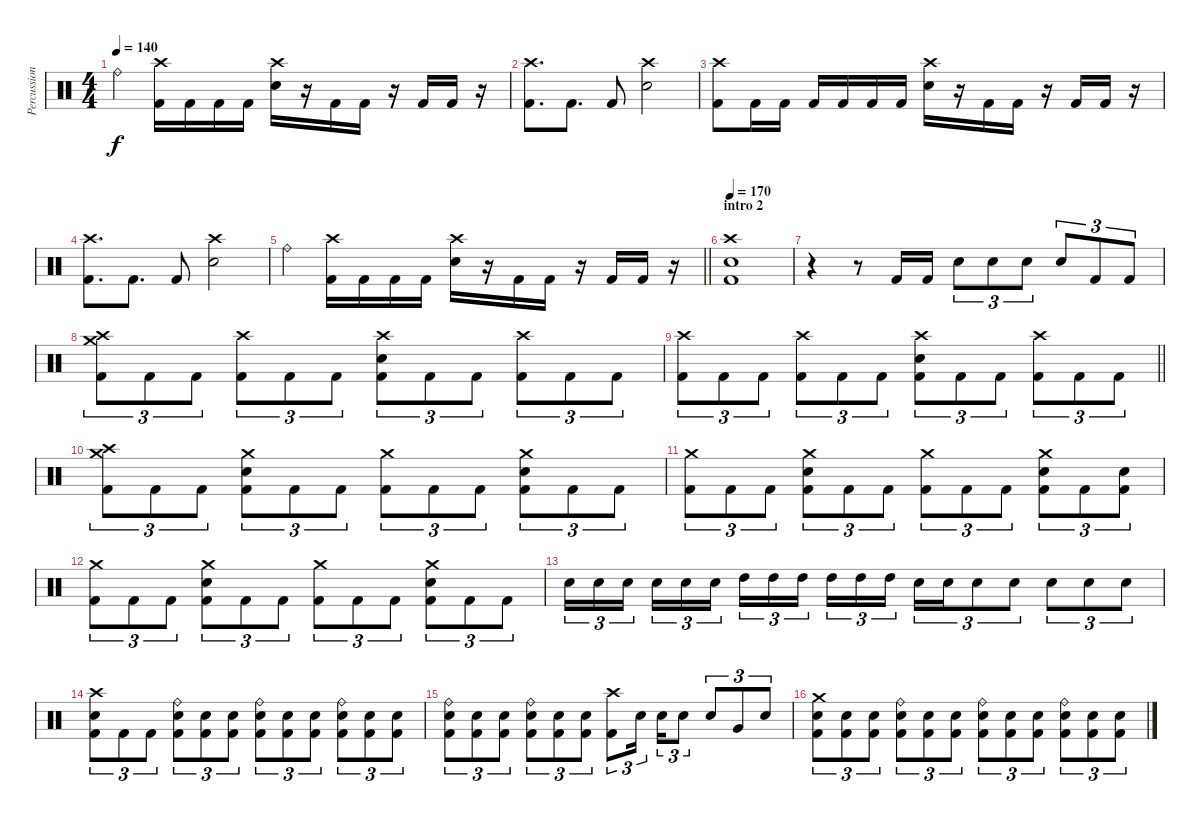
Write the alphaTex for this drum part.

\track ("Percussion" "Percussion") {instrument percussion}
\staff {score}
\articulation defaults
\ts (4 4)
\tempo 140
\clef neutral
\ks c "Ride (bell)".4{dy f}
("Crash high (hit)" "Kick (hit) 2").16 "Kick (hit) 2".16 "Kick (hit) 2".16 "Kick (hit) 2".16 ("Crash high (hit)" "Electric Snare (hit)").16 r.16 "Kick (hit) 2".16 "Kick (hit) 2".16 r.16 "Kick (hit) 2".16 "Kick (hit) 2".16 r.16 |
("Crash high (hit)" "Kick (hit) 2").8{d} "Kick (hit) 2".8{d} "Kick (hit) 2".8 ("Crash high (hit)" "Electric Snare (hit)").2 |
("Crash high (hit)" "Kick (hit) 2").8 "Kick (hit) 2".16 "Kick (hit) 2".16 "Kick (hit) 2".16 "Kick (hit) 2".16 "Kick (hit) 2".16 "Kick (hit) 2".16 ("Crash high (hit)" "Electric Snare (hit)").16 r.16 "Kick (hit) 2".16 "Kick (hit) 2".16 r.16 "Kick (hit) 2".16 "Kick (hit) 2".16 r.16 |
("Crash high (hit)" "Kick (hit) 2").8{d} "Kick (hit) 2".8{d} "Kick (hit) 2".8 ("Crash high (hit)" "Electric Snare (hit)").2 |
\barLineRight lightlight "Ride (bell)".4
("Crash high (hit)" "Kick (hit) 2").16 "Kick (hit) 2".16 "Kick (hit) 2".16 "Kick (hit) 2".16 ("Crash high (hit)" "Electric Snare (hit)").16 r.16 "Kick (hit) 2".16 "Kick (hit) 2".16 r.16 "Kick (hit) 2".16 "Kick (hit) 2".16 r.16 |
\section ("" "intro 2")
\tempo 170
("Crash high (hit)" "Electric Snare (hit)" "Kick (hit) 2").1 |
r.4 r.8 "Kick (hit) 2".16 "Kick (hit) 2".16 "Electric Snare (hit)".8{tu (3 2)} "Electric Snare (hit)".8{tu (3 2)} "Electric Snare (hit)".8{tu (3 2)} "Electric Snare (hit)".8{tu (3 2)} "Kick (hit) 2".8{tu (3 2)} "Kick (hit) 2".8{tu (3 2)} |
("Crash medium (hit)" "Crash high (hit)" "Kick (hit) 2").8{tu (3 2)} "Kick (hit) 2".8{tu (3 2)} "Kick (hit) 2".8{tu (3 2)} ("Crash high (hit)" "Kick (hit) 2").8{tu (3 2)} "Kick (hit) 2".8{tu (3 2)} "Kick (hit) 2".8{tu (3 2)} ("Crash high (hit)" "Electric Snare (hit)" "Kick (hit) 2").8{tu (3 2)} "Kick (hit) 2".8{tu (3 2)} "Kick (hit) 2".8{tu (3 2)} ("Crash high (hit)" "Kick (hit) 2").8{tu (3 2)} "Kick (hit) 2".8{tu (3 2)} "Kick (hit) 2".8{tu (3 2)} |
\barLineRight lightlight
("Crash high (hit)" "Kick (hit) 2").8{tu (3 2)} "Kick (hit) 2".8{tu (3 2)} "Kick (hit) 2".8{tu (3 2)} ("Crash high (hit)" "Kick (hit) 2").8{tu (3 2)} "Kick (hit) 2".8{tu (3 2)} "Kick (hit) 2".8{tu (3 2)} ("Crash high (hit)" "Electric Snare (hit)" "Kick (hit) 2").8{tu (3 2)} "Kick (hit) 2".8{tu (3 2)} "Kick (hit) 2".8{tu (3 2)} ("Crash high (hit)" "Kick (hit) 2").8{tu (3 2)} "Kick (hit) 2".8{tu (3 2)} "Kick (hit) 2".8{tu (3 2)} |
("Crash high (hit)" "Crash medium (hit)" "Kick (hit) 2").8{tu (3 2)} "Kick (hit) 2".8{tu (3 2)} "Kick (hit) 2".8{tu (3 2)} ("Crash medium (hit)" "Electric Snare (hit)" "Kick (hit) 2").8{tu (3 2)} "Kick (hit) 2".8{tu (3 2)} "Kick (hit) 2".8{tu (3 2)} ("Crash medium (hit)" "Kick (hit) 2").8{tu (3 2)} "Kick (hit) 2".8{tu (3 2)} "Kick (hit) 2".8{tu (3 2)} ("Crash medium (hit)" "Electric Snare (hit)" "Kick (hit) 2").8{tu (3 2)} "Kick (hit) 2".8{tu (3 2)} "Kick (hit) 2".8{tu (3 2)} |
("Crash medium (hit)" "Kick (hit) 2").8{tu (3 2)} "Kick (hit) 2".8{tu (3 2)} "Kick (hit) 2".8{tu (3 2)} ("Crash medium (hit)" "Electric Snare (hit)" "Kick (hit) 2").8{tu (3 2)} "Kick (hit) 2".8{tu (3 2)} "Kick (hit) 2".8{tu (3 2)} ("Crash medium (hit)" "Kick (hit) 2").8{tu (3 2)} "Kick (hit) 2".8{tu (3 2)} "Kick (hit) 2".8{tu (3 2)} ("Crash medium (hit)" "Electric Snare (hit)" "Kick (hit) 2").8{tu (3 2)} "Kick (hit) 2".8{tu (3 2)} ("Electric Snare (hit)" "Kick (hit) 2").8{tu (3 2)} |
("Crash medium (hit)" "Kick (hit) 2").8{tu (3 2)} "Kick (hit) 2".8{tu (3 2)} "Kick (hit) 2".8{tu (3 2)} ("Crash medium (hit)" "Electric Snare (hit)" "Kick (hit) 2").8{tu (3 2)} "Kick (hit) 2".8{tu (3 2)} "Kick (hit) 2".8{tu (3 2)} ("Crash medium (hit)" "Kick (hit) 2").8{tu (3 2)} "Kick (hit) 2".8{tu (3 2)} "Kick (hit) 2".8{tu (3 2)} ("Crash medium (hit)" "Electric Snare (hit)" "Kick (hit) 2").8{tu (3 2)} "Kick (hit) 2".8{tu (3 2)} "Kick (hit) 2".8{tu (3 2)} |
"Electric Snare (hit)".16{tu (3 2)} "Electric Snare (hit)".16{tu (3 2)} "Electric Snare (hit)".16{tu (3 2) beam splitsecondary} "Electric Snare (hit)".16{tu (3 2)} "Electric Snare (hit)".16{tu (3 2)} "Electric Snare (hit)".16{tu (3 2)} "High Tom (hit)".16{tu (3 2)} "High Tom (hit)".16{tu (3 2)} "High Tom (hit)".16{tu (3 2) beam splitsecondary} "High Tom (hit)".16{tu (3 2)} "High Tom (hit)".16{tu (3 2)} "High Tom (hit)".16{tu (3 2)} "Electric Snare (hit)".16{tu (3 2)} "Electric Snare (hit)".16{tu (3 2)} "Electric Snare (hit)".8{tu (3 2)} "Electric Snare (hit)".8{tu (3 2)} "Electric Snare (hit)".8{tu (3 2)} "Electric Snare (hit)".8{tu (3 2)} "Electric Snare (hit)".8{tu (3 2)} |
("Crash high (hit)" "Electric Snare (hit)" "Kick (hit) 2").8{tu (3 2)} "Kick (hit) 2".8{tu (3 2)} "Kick (hit) 2".8{tu (3 2)} ("Ride (bell)" "Electric Snare (hit)" "Kick (hit) 2").8{tu (3 2)} ("Electric Snare (hit)" "Kick (hit) 2").8{tu (3 2)} ("Electric Snare (hit)" "Kick (hit) 2").8{tu (3 2)} ("Ride (bell)" "Electric Snare (hit)" "Kick (hit) 2").8{tu (3 2)} ("Electric Snare (hit)" "Kick (hit) 2").8{tu (3 2)} ("Electric Snare (hit)" "Kick (hit) 2").8{tu (3 2)} ("Ride (bell)" "Electric Snare (hit)" "Kick (hit) 2").8{tu (3 2)} ("Electric Snare (hit)" "Kick (hit) 2").8{tu (3 2)} ("Electric Snare (hit)" "Kick (hit) 2").8{tu (3 2)} |
("Ride (bell)" "Electric Snare (hit)" "Kick (hit) 2").8{tu (3 2)} ("Electric Snare (hit)" "Kick (hit) 2").8{tu (3 2)} ("Electric Snare (hit)" "Kick (hit) 2").8{tu (3 2)} ("Ride (bell)" "Electric Snare (hit)" "Kick (hit) 2").8{tu (3 2)} ("Electric Snare (hit)" "Kick (hit) 2").8{tu (3 2)} ("Electric Snare (hit)" "Kick (hit) 2").8{tu (3 2)} ("Crash high (hit)" "Kick (hit) 2").8{tu (3 2)} "Electric Snare (hit)".16{tu (3 2) beam splitsecondary} "Electric Snare (hit)".16{tu (3 2)} "Electric Snare (hit)".8{tu (3 2)} "Electric Snare (hit)".8{tu (3 2)} "Very Low Tom (hit)".8{tu (3 2)} "Electric Snare (hit)".8{tu (3 2)} |
("Crash medium (hit)" "Electric Snare (hit)" "Kick (hit) 2").8{tu (3 2)} ("Electric Snare (hit)" "Kick (hit) 2").8{tu (3 2)} ("Electric Snare (hit)" "Kick (hit) 2").8{tu (3 2)} ("Ride (bell)" "Electric Snare (hit)" "Kick (hit) 2").8{tu (3 2)} ("Electric Snare (hit)" "Kick (hit) 2").8{tu (3 2)} ("Electric Snare (hit)" "Kick (hit) 2").8{tu (3 2)} ("Ride (bell)" "Electric Snare (hit)" "Kick (hit) 2").8{tu (3 2)} ("Electric Snare (hit)" "Kick (hit) 2").8{tu (3 2)} ("Electric Snare (hit)" "Kick (hit) 2").8{tu (3 2)} ("Ride (bell)" "Electric Snare (hit)" "Kick (hit) 2").8{tu (3 2)} ("Electric Snare (hit)" "Kick (hit) 2").8{tu (3 2)} ("Electric Snare (hit)" "Kick (hit) 2").8{tu (3 2)}
